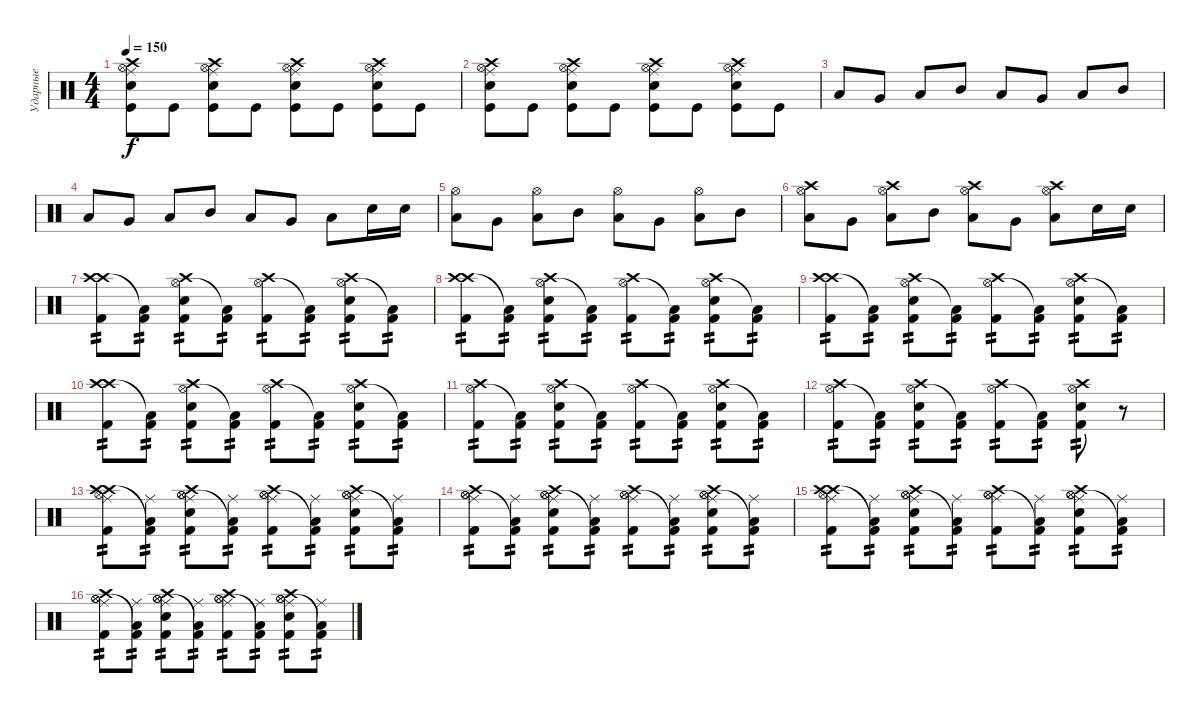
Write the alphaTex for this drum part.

\track ("Ударные" "Ударные") {instrument percussion}
\staff {score}
\articulation defaults
\ts (4 4)
\tempo 150
\clef neutral
\ks c
("Crash high (hit)" "Ride (middle)" "Hi-Hat (open)" "Kick (hit)" "Snare (hit) 2").8{dy f} "Kick (hit)".8 ("Crash high (hit)" "Ride (middle)" "Hi-Hat (open)" "Kick (hit)" "Snare (hit) 2").8 "Kick (hit)".8 ("Crash high (hit)" "Ride (middle)" "Hi-Hat (open)" "Kick (hit)" "Snare (hit) 2").8 "Kick (hit)".8 ("Crash high (hit)" "Ride (middle)" "Hi-Hat (open)" "Kick (hit)" "Snare (hit) 2").8 "Kick (hit)".8 |
("Crash high (hit)" "Ride (middle)" "Hi-Hat (open)" "Kick (hit)" "Snare (hit) 2").8 "Kick (hit)".8 ("Crash high (hit)" "Ride (middle)" "Hi-Hat (open)" "Kick (hit)" "Snare (hit) 2").8 "Kick (hit)".8 ("Crash high (hit)" "Ride (middle)" "Hi-Hat (open)" "Kick (hit)" "Snare (hit) 2").8 "Kick (hit)".8 ("Crash high (hit)" "Ride (middle)" "Hi-Hat (open)" "Kick (hit)" "Snare (hit) 2").8 "Kick (hit)".8 |
"Low Floor Tom (hit)".8 "Very Low Tom (hit)".8 "Low Tom (hit)".8 "Mid Tom (hit)".8 "Low Floor Tom (hit)".8 "Very Low Tom (hit)".8 "Low Tom (hit)".8 "Mid Tom (hit)".8 |
"Low Floor Tom (hit)".8 "Very Low Tom (hit)".8 "Low Tom (hit)".8 "Mid Tom (hit)".8 "Low Floor Tom (hit)".8 "Very Low Tom (hit)".8 "Low Tom (hit)".8 "Snare (hit) 2".16 "Snare (hit) 2".16 |
("Low Floor Tom (hit)" "Hi-Hat (open)").8 "Very Low Tom (hit)".8 ("Low Tom (hit)" "Hi-Hat (open)").8 "Mid Tom (hit)".8 ("Low Floor Tom (hit)" "Hi-Hat (open)").8 "Very Low Tom (hit)".8 ("Low Tom (hit)" "Hi-Hat (open)").8 "Mid Tom (hit)".8 |
("Low Floor Tom (hit)" "Crash high (hit)" "Hi-Hat (open)").8 "Very Low Tom (hit)".8 ("Low Tom (hit)" "Crash high (hit)" "Hi-Hat (open)").8 "Mid Tom (hit)".8 ("Low Floor Tom (hit)" "Crash high (hit)" "Hi-Hat (open)").8 "Very Low Tom (hit)".8 ("Low Tom (hit)" "Crash high (hit)" "Hi-Hat (open)").8 "Snare (hit) 2".16 "Snare (hit) 2".16 |
("Crash high (hit)" "Kick (hit) 2" "Crash high (hit)").8{tp 2} ("Low Tom (hit)"{t} "Kick (hit) 2").8{tp 2} ("Hi-Hat (open)" "Electric Snare (hit)" "Kick (hit) 2" "Crash high (hit)").8{tp 2} ("Low Tom (hit)"{t} "Kick (hit) 2").8{tp 2} ("Hi-Hat (open)" "Kick (hit) 2" "Crash high (hit)").8{tp 2} ("Low Tom (hit)"{t} "Kick (hit) 2").8{tp 2} ("Hi-Hat (open)" "Electric Snare (hit)" "Kick (hit) 2" "Crash high (hit)").8{tp 2} ("Low Tom (hit)"{t} "Kick (hit) 2").8{tp 2} |
("Crash high (hit)" "Kick (hit) 2" "Crash high (hit)").8{tp 2} ("Low Tom (hit)"{t} "Kick (hit) 2").8{tp 2} ("Hi-Hat (open)" "Electric Snare (hit)" "Kick (hit) 2" "Crash high (hit)").8{tp 2} ("Low Tom (hit)"{t} "Kick (hit) 2").8{tp 2} ("Hi-Hat (open)" "Kick (hit) 2" "Crash high (hit)").8{tp 2} ("Low Tom (hit)"{t} "Kick (hit) 2").8{tp 2} ("Hi-Hat (open)" "Electric Snare (hit)" "Kick (hit) 2" "Crash high (hit)").8{tp 2} ("Low Tom (hit)"{t} "Kick (hit) 2").8{tp 2} |
("Crash high (hit)" "Kick (hit) 2" "Crash high (hit)").8{tp 2} ("Low Tom (hit)"{t} "Kick (hit) 2").8{tp 2} ("Hi-Hat (open)" "Electric Snare (hit)" "Kick (hit) 2" "Crash high (hit)").8{tp 2} ("Low Tom (hit)"{t} "Kick (hit) 2").8{tp 2} ("Hi-Hat (open)" "Kick (hit) 2" "Crash high (hit)").8{tp 2} ("Low Tom (hit)"{t} "Kick (hit) 2").8{tp 2} ("Hi-Hat (open)" "Electric Snare (hit)" "Kick (hit) 2" "Crash high (hit)").8{tp 2} ("Low Tom (hit)"{t} "Kick (hit) 2").8{tp 2} |
("Crash high (hit)" "Kick (hit) 2" "Crash high (hit)").8{tp 2} ("Low Tom (hit)"{t} "Kick (hit) 2").8{tp 2} ("Hi-Hat (open)" "Electric Snare (hit)" "Kick (hit) 2" "Crash high (hit)").8{tp 2} ("Low Tom (hit)"{t} "Kick (hit) 2").8{tp 2} ("Hi-Hat (open)" "Kick (hit) 2" "Crash high (hit)").8{tp 2} ("Low Tom (hit)"{t} "Kick (hit) 2").8{tp 2} ("Hi-Hat (open)" "Electric Snare (hit)" "Kick (hit) 2" "Crash high (hit)").8{tp 2} ("Low Tom (hit)"{t} "Kick (hit) 2").8{tp 2} |
("Hi-Hat (open)" "Kick (hit) 2" "Crash high (hit)").8{tp 2} ("Low Tom (hit)"{t} "Kick (hit) 2").8{tp 2} ("Hi-Hat (open)" "Electric Snare (hit)" "Kick (hit) 2" "Crash high (hit)").8{tp 2} ("Low Tom (hit)"{t} "Kick (hit) 2").8{tp 2} ("Hi-Hat (open)" "Kick (hit) 2" "Crash high (hit)").8{tp 2} ("Low Tom (hit)"{t} "Kick (hit) 2").8{tp 2} ("Hi-Hat (open)" "Electric Snare (hit)" "Kick (hit) 2" "Crash high (hit)").8{tp 2} ("Low Tom (hit)"{t} "Kick (hit) 2").8{tp 2} |
("Hi-Hat (open)" "Kick (hit) 2" "Crash high (hit)").8{tp 2} ("Low Tom (hit)"{t} "Kick (hit) 2").8{tp 2} ("Hi-Hat (open)" "Electric Snare (hit)" "Kick (hit) 2" "Crash high (hit)").8{tp 2} ("Low Tom (hit)"{t} "Kick (hit) 2").8{tp 2} ("Hi-Hat (open)" "Kick (hit) 2" "Crash high (hit)").8{tp 2} ("Low Tom (hit)"{t} "Kick (hit) 2").8{tp 2} ("Hi-Hat (open)" "Electric Snare (hit)" "Kick (hit) 2" "Crash high (hit)").8{tp 2} r.8 |
("Crash high (hit)" "Kick (hit) 2" "Hi-Hat (open)" "Ride (middle)" "Crash high (hit)").8{tp 2} ("Low Tom (hit)"{t} "Kick (hit) 2" "Ride (middle)").8{tp 2} ("Hi-Hat (open)" "Electric Snare (hit)" "Kick (hit) 2" "Hi-Hat (open)" "Ride (middle)" "Crash high (hit)").8{tp 2} ("Low Tom (hit)"{t} "Kick (hit) 2" "Ride (middle)").8{tp 2} ("Hi-Hat (open)" "Kick (hit) 2" "Hi-Hat (open)" "Ride (middle)" "Crash high (hit)").8{tp 2} ("Low Tom (hit)"{t} "Kick (hit) 2" "Ride (middle)").8{tp 2} ("Hi-Hat (open)" "Electric Snare (hit)" "Kick (hit) 2" "Hi-Hat (open)" "Ride (middle)" "Crash high (hit)").8{tp 2} ("Low Tom (hit)"{t} "Kick (hit) 2" "Ride (middle)").8{tp 2} |
("Hi-Hat (open)" "Kick (hit) 2" "Hi-Hat (open)" "Ride (middle)" "Crash high (hit)").8{tp 2} ("Low Tom (hit)"{t} "Kick (hit) 2" "Ride (middle)").8{tp 2} ("Hi-Hat (open)" "Electric Snare (hit)" "Kick (hit) 2" "Hi-Hat (open)" "Ride (middle)" "Crash high (hit)").8{tp 2} ("Low Tom (hit)"{t} "Kick (hit) 2" "Ride (middle)").8{tp 2} ("Hi-Hat (open)" "Kick (hit) 2" "Hi-Hat (open)" "Ride (middle)" "Crash high (hit)").8{tp 2} ("Low Tom (hit)"{t} "Kick (hit) 2" "Ride (middle)").8{tp 2} ("Hi-Hat (open)" "Electric Snare (hit)" "Kick (hit) 2" "Hi-Hat (open)" "Ride (middle)" "Crash high (hit)").8{tp 2} ("Low Tom (hit)"{t} "Kick (hit) 2" "Ride (middle)").8{tp 2} |
("Crash high (hit)" "Kick (hit) 2" "Hi-Hat (open)" "Ride (middle)" "Crash high (hit)").8{tp 2} ("Low Tom (hit)"{t} "Kick (hit) 2" "Ride (middle)").8{tp 2} ("Hi-Hat (open)" "Electric Snare (hit)" "Kick (hit) 2" "Hi-Hat (open)" "Ride (middle)" "Crash high (hit)").8{tp 2} ("Low Tom (hit)"{t} "Kick (hit) 2" "Ride (middle)").8{tp 2} ("Hi-Hat (open)" "Kick (hit) 2" "Hi-Hat (open)" "Ride (middle)" "Crash high (hit)").8{tp 2} ("Low Tom (hit)"{t} "Kick (hit) 2" "Ride (middle)").8{tp 2} ("Hi-Hat (open)" "Electric Snare (hit)" "Kick (hit) 2" "Hi-Hat (open)" "Ride (middle)" "Crash high (hit)").8{tp 2} ("Low Tom (hit)"{t} "Kick (hit) 2" "Ride (middle)").8{tp 2} |
("Hi-Hat (open)" "Kick (hit) 2" "Hi-Hat (open)" "Ride (middle)" "Crash high (hit)").8{tp 2} ("Low Tom (hit)"{t} "Kick (hit) 2" "Ride (middle)").8{tp 2} ("Hi-Hat (open)" "Electric Snare (hit)" "Kick (hit) 2" "Hi-Hat (open)" "Ride (middle)" "Crash high (hit)").8{tp 2} ("Low Tom (hit)"{t} "Kick (hit) 2" "Ride (middle)").8{tp 2} ("Hi-Hat (open)" "Kick (hit) 2" "Hi-Hat (open)" "Ride (middle)" "Crash high (hit)").8{tp 2} ("Low Tom (hit)"{t} "Kick (hit) 2" "Ride (middle)").8{tp 2} ("Hi-Hat (open)" "Electric Snare (hit)" "Kick (hit) 2" "Hi-Hat (open)" "Ride (middle)" "Crash high (hit)").8{tp 2} ("Low Tom (hit)"{t} "Kick (hit) 2" "Ride (middle)").8{tp 2}
